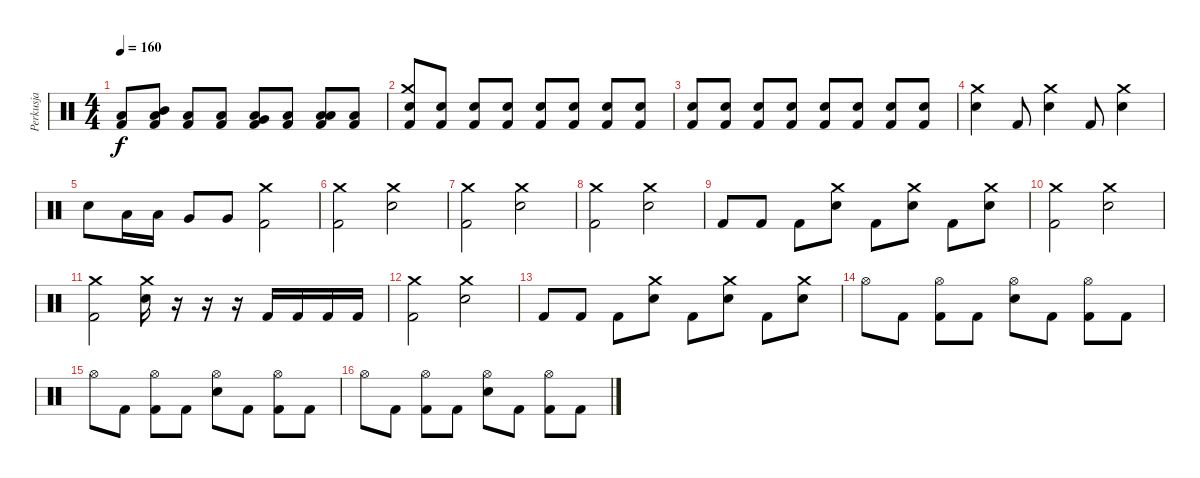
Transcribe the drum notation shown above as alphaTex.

\track ("Perkusja" "Perkusja") {instrument percussion}
\staff {score}
\articulation defaults
\ts (4 4)
\tempo 160
\clef neutral
\ks c
("Low Floor Tom (hit)" "Kick (hit) 2").8{dy f} ("Mid Tom (hit)" "Low Floor Tom (hit)" "Kick (hit) 2").8 ("Low Floor Tom (hit)" "Kick (hit) 2").8 ("Low Floor Tom (hit)" "Kick (hit) 2").8 ("Very Low Tom (hit)" "Low Floor Tom (hit)" "Kick (hit) 2").8 ("Low Floor Tom (hit)" "Kick (hit) 2").8 ("Low Tom (hit)" "Low Floor Tom (hit)" "Kick (hit) 2").8 ("Low Floor Tom (hit)" "Kick (hit) 2").8 |
("Crash medium (hit)" "Electric Snare (hit)" "Kick (hit) 2").8 ("Electric Snare (hit)" "Kick (hit) 2").8 ("Electric Snare (hit)" "Kick (hit) 2").8 ("Electric Snare (hit)" "Kick (hit) 2").8 ("Electric Snare (hit)" "Kick (hit) 2").8 ("Electric Snare (hit)" "Kick (hit) 2").8 ("Electric Snare (hit)" "Kick (hit) 2").8 ("Electric Snare (hit)" "Kick (hit) 2").8 |
("Electric Snare (hit)" "Kick (hit) 2").8 ("Electric Snare (hit)" "Kick (hit) 2").8 ("Electric Snare (hit)" "Kick (hit) 2").8 ("Electric Snare (hit)" "Kick (hit) 2").8 ("Electric Snare (hit)" "Kick (hit) 2").8 ("Electric Snare (hit)" "Kick (hit) 2").8 ("Electric Snare (hit)" "Kick (hit) 2").8 ("Electric Snare (hit)" "Kick (hit) 2").8 |
("Crash medium (hit)" "Electric Snare (hit)").4 "Kick (hit) 2".8 ("Crash medium (hit)" "Electric Snare (hit)").4 "Kick (hit) 2".8 ("Crash medium (hit)" "Electric Snare (hit)").4 |
"Electric Snare (hit)".8 "Low Tom (hit)".16 "Low Tom (hit)".16 "Very Low Tom (hit)".8 "Very Low Tom (hit)".8 ("Crash medium (hit)" "Kick (hit) 2").2 |
("Crash medium (hit)" "Kick (hit) 2").2 ("Crash medium (hit)" "Electric Snare (hit)").2 |
("Crash medium (hit)" "Kick (hit) 2").2 ("Crash medium (hit)" "Electric Snare (hit)").2 |
("Crash medium (hit)" "Kick (hit) 2").2 ("Crash medium (hit)" "Electric Snare (hit)").2 |
"Kick (hit) 2".8 "Kick (hit) 2".8 "Kick (hit) 2".8 ("Crash medium (hit)" "Electric Snare (hit)").8 "Kick (hit) 2".8 ("Crash medium (hit)" "Electric Snare (hit)").8 "Kick (hit) 2".8 ("Crash medium (hit)" "Electric Snare (hit)").8 |
("Crash medium (hit)" "Kick (hit) 2").2 ("Crash medium (hit)" "Electric Snare (hit)").2 |
("Crash medium (hit)" "Kick (hit) 2").2 ("Crash medium (hit)" "Electric Snare (hit)").16 r.16 r.16 r.16 "Kick (hit) 2".16 "Kick (hit) 2".16 "Kick (hit) 2".16 "Kick (hit) 2".16 |
("Crash medium (hit)" "Kick (hit) 2").2 ("Crash medium (hit)" "Electric Snare (hit)").2 |
"Kick (hit) 2".8 "Kick (hit) 2".8 "Kick (hit) 2".8 ("Crash medium (hit)" "Electric Snare (hit)").8 "Kick (hit) 2".8 ("Crash medium (hit)" "Electric Snare (hit)").8 "Kick (hit) 2".8 ("Crash medium (hit)" "Electric Snare (hit)").8 |
"Hi-Hat (open)".8 "Kick (hit) 2".8 ("Hi-Hat (open)" "Kick (hit) 2").8 "Kick (hit) 2".8 ("Hi-Hat (open)" "Electric Snare (hit)").8 "Kick (hit) 2".8 ("Hi-Hat (open)" "Kick (hit) 2").8 "Kick (hit) 2".8 |
"Hi-Hat (open)".8 "Kick (hit) 2".8 ("Hi-Hat (open)" "Kick (hit) 2").8 "Kick (hit) 2".8 ("Hi-Hat (open)" "Electric Snare (hit)").8 "Kick (hit) 2".8 ("Hi-Hat (open)" "Kick (hit) 2").8 "Kick (hit) 2".8 |
"Hi-Hat (open)".8 "Kick (hit) 2".8 ("Hi-Hat (open)" "Kick (hit) 2").8 "Kick (hit) 2".8 ("Hi-Hat (open)" "Electric Snare (hit)").8 "Kick (hit) 2".8 ("Hi-Hat (open)" "Kick (hit) 2").8 "Kick (hit) 2".8
